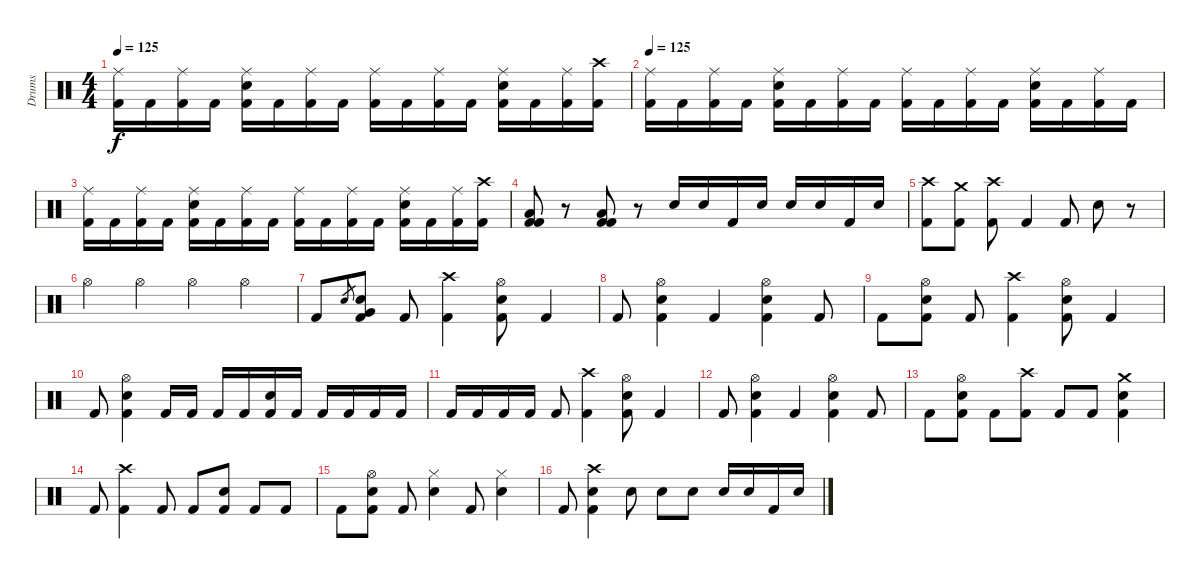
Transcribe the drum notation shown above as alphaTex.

\track ("Drums" "Drums") {instrument percussion}
\staff {score}
\articulation defaults
\ts (4 4)
\tempo 125
\clef neutral
\ks c
("Ride (middle)" "Kick (hit) 2").16{dy f} "Kick (hit) 2".16 ("Ride (middle)" "Kick (hit) 2").16 "Kick (hit) 2".16 ("Ride (middle)" "Electric Snare (hit)" "Kick (hit) 2").16 "Kick (hit) 2".16 ("Ride (middle)" "Kick (hit) 2").16 "Kick (hit) 2".16 ("Ride (middle)" "Kick (hit) 2").16 "Kick (hit) 2".16 ("Ride (middle)" "Kick (hit) 2").16 "Kick (hit) 2".16 ("Ride (middle)" "Electric Snare (hit)" "Kick (hit) 2").16 "Kick (hit) 2".16 ("Ride (middle)" "Kick (hit) 2").16 ("Crash high (hit)" "Kick (hit) 2").16 |
\tempo 125
("Ride (middle)" "Kick (hit) 2").16 "Kick (hit) 2".16 ("Ride (middle)" "Kick (hit) 2").16 "Kick (hit) 2".16 ("Ride (middle)" "Electric Snare (hit)" "Kick (hit) 2").16 "Kick (hit) 2".16 ("Ride (middle)" "Kick (hit) 2").16 "Kick (hit) 2".16 ("Ride (middle)" "Kick (hit) 2").16 "Kick (hit) 2".16 ("Ride (middle)" "Kick (hit) 2").16 "Kick (hit) 2".16 ("Ride (middle)" "Electric Snare (hit)" "Kick (hit) 2").16 "Kick (hit) 2".16 ("Ride (middle)" "Kick (hit) 2").16 "Kick (hit) 2".16 |
("Ride (middle)" "Kick (hit) 2").16 "Kick (hit) 2".16 ("Ride (middle)" "Kick (hit) 2").16 "Kick (hit) 2".16 ("Ride (middle)" "Electric Snare (hit)" "Kick (hit) 2").16 "Kick (hit) 2".16 ("Ride (middle)" "Kick (hit) 2").16 "Kick (hit) 2".16 ("Ride (middle)" "Kick (hit) 2").16 "Kick (hit) 2".16 ("Ride (middle)" "Kick (hit) 2").16 "Kick (hit) 2".16 ("Ride (middle)" "Electric Snare (hit)" "Kick (hit) 2").16 "Kick (hit) 2".16 ("Ride (middle)" "Kick (hit) 2").16 ("Crash high (hit)" "Kick (hit) 2").16 |
("Low Floor Tom (hit)" "Kick (hit) 2" "Kick (hit) 2").8 r.8 ("Low Floor Tom (hit)" "Kick (hit) 2" "Kick (hit) 2").8 r.8 "Electric Snare (hit)".16 "Electric Snare (hit)".16 "Kick (hit) 2".16 "Electric Snare (hit)".16 "Electric Snare (hit)".16 "Electric Snare (hit)".16 "Kick (hit) 2".16 "Electric Snare (hit)".16 |
("Crash high (hit)" "Kick (hit) 2").8 ("Crash medium (hit)" "Kick (hit) 2").8 ("Crash high (hit)" "Kick (hit) 2").8 "Kick (hit) 2".4 "Kick (hit) 2".8 "Electric Snare (hit)".8 r.8 |
"Hi-Hat (open)".4 "Hi-Hat (open)".4 "Hi-Hat (open)".4 "Hi-Hat (open)".4 |
"Kick (hit) 2".8 "Electric Snare (hit)".8{gr} ("Very Low Tom (hit)" "Electric Snare (hit)" "Kick (hit) 2").8 "Kick (hit) 2".8 ("Crash high (hit)" "Kick (hit) 2").4 ("Hi-Hat (open)" "Electric Snare (hit)" "Kick (hit) 2").8 "Kick (hit) 2".4 |
"Kick (hit) 2".8 ("Hi-Hat (open)" "Electric Snare (hit)" "Kick (hit) 2").4 "Kick (hit) 2".4 ("Hi-Hat (open)" "Electric Snare (hit)" "Kick (hit) 2").4 "Kick (hit) 2".8 |
"Kick (hit) 2".8 ("Hi-Hat (open)" "Electric Snare (hit)" "Kick (hit) 2").8 "Kick (hit) 2".8 ("Crash high (hit)" "Kick (hit) 2").4 ("Hi-Hat (open)" "Electric Snare (hit)" "Kick (hit) 2").8 "Kick (hit) 2".4 |
"Kick (hit) 2".8 ("Hi-Hat (open)" "Electric Snare (hit)" "Kick (hit) 2").4 "Kick (hit) 2".16 "Kick (hit) 2".16 "Kick (hit) 2".16 "Kick (hit) 2".16 ("Electric Snare (hit)" "Kick (hit) 2").16 "Kick (hit) 2".16 "Kick (hit) 2".16 "Kick (hit) 2".16 "Kick (hit) 2".16 "Kick (hit) 2".16 |
"Kick (hit) 2".16 "Kick (hit) 2".16 "Kick (hit) 2".16 "Kick (hit) 2".16 "Kick (hit) 2".8 ("Crash high (hit)" "Kick (hit) 2").4 ("Hi-Hat (open)" "Electric Snare (hit)" "Kick (hit) 2").8 "Kick (hit) 2".4 |
"Kick (hit) 2".8 ("Hi-Hat (open)" "Electric Snare (hit)" "Kick (hit) 2").4 "Kick (hit) 2".4 ("Hi-Hat (open)" "Electric Snare (hit)" "Kick (hit) 2").4 "Kick (hit) 2".8 |
"Kick (hit) 2".8 ("Hi-Hat (open)" "Electric Snare (hit)" "Kick (hit) 2").8 "Kick (hit) 2".8 ("Crash high (hit)" "Kick (hit) 2").8 "Kick (hit) 2".8 "Kick (hit) 2".8 ("Crash medium (hit)" "Electric Snare (hit)" "Kick (hit) 2").4 |
"Kick (hit) 2".8 ("Crash high (hit)" "Kick (hit) 2").4 "Kick (hit) 2".8 "Kick (hit) 2".8 ("Electric Snare (hit)" "Kick (hit) 2").8 "Kick (hit) 2".8 "Kick (hit) 2".8 |
"Kick (hit) 2".8 ("Hi-Hat (open)" "Electric Snare (hit)" "Kick (hit) 2").8 "Kick (hit) 2".8 ("Hi-Hat (closed)" "Electric Snare (hit)").4 "Kick (hit) 2".8 ("Hi-Hat (closed)" "Electric Snare (hit)").4 |
"Kick (hit) 2".8 ("Crash high (hit)" "Electric Snare (hit)" "Kick (hit) 2").4 "Electric Snare (hit)".8 "Electric Snare (hit)".8 "Electric Snare (hit)".8 "Electric Snare (hit)".16 "Electric Snare (hit)".16 "Kick (hit) 2".16 "Electric Snare (hit)".16
